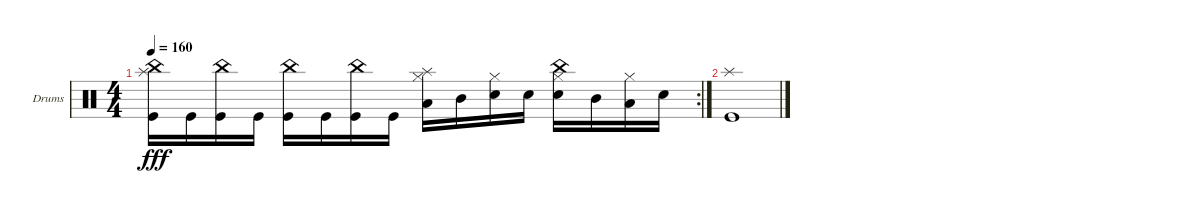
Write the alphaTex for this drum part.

\bracketExtendMode groupsimilarinstruments
\firstSystemTrackNameOrientation horizontal
\otherSystemsTrackNameOrientation horizontal
\track ("Drumkit" "Drums") {instrument percussion}
\staff {score}
\articulation defaults
\rc 2
\ts (4 4)
\tempo 160
\clef neutral
\ks c
("Kick (hit)" "Splash (hit)" "China (hit)").16{dy fff} "Kick (hit)".16 ("Kick (hit)" "China (hit)").16 "Kick (hit)".16 ("Kick (hit)" "China (hit)").16 "Kick (hit)".16 ("Kick (hit)" "China (hit)").16 "Kick (hit)".16 ("Low Tom (hit)" "Splash (hit)" "Hi-Hat (closed)").16 "Mid Tom (hit)".16 ("Snare (hit) 2" "Hi-Hat (closed)").16 "Snare (hit) 2".16 ("Snare (hit) 2" "China (hit)" "Hi-Hat (closed)").16 "Mid Tom (hit)".16 ("Low Tom (hit)" "Hi-Hat (closed)").16 "Snare (hit) 2".16 |
("Kick (hit)" "Splash (hit)").1
